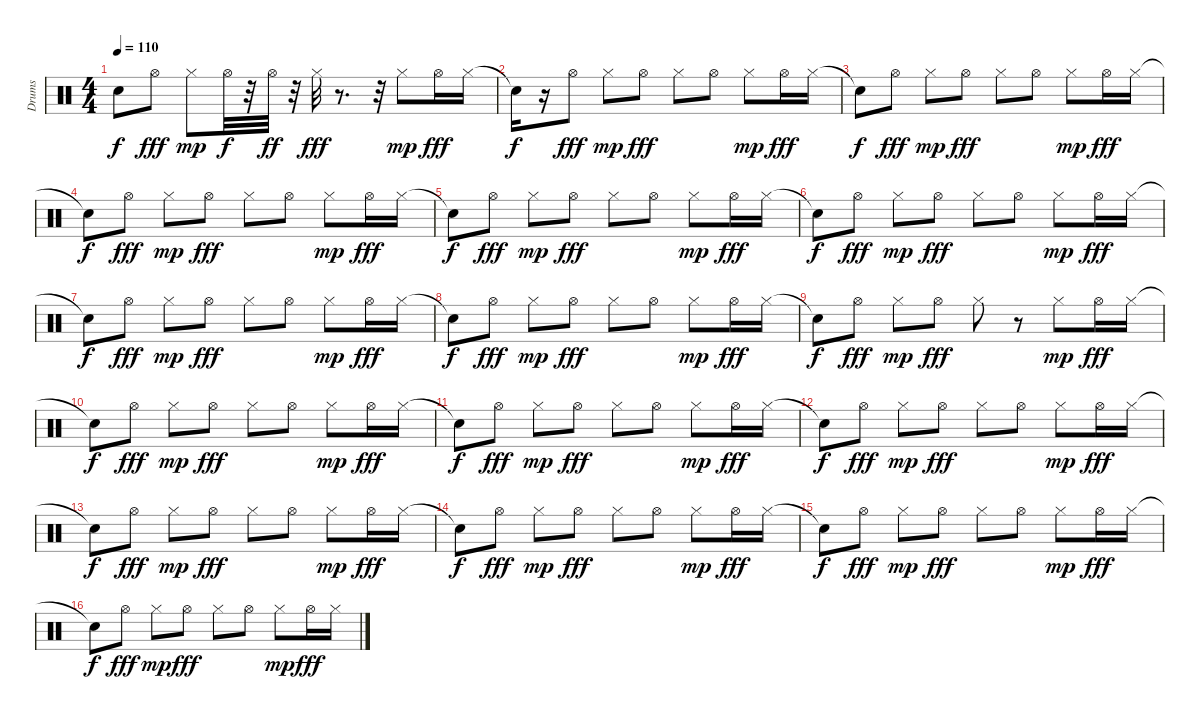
\track ("Drums" "Drums") {instrument percussion}
\staff {score}
\articulation defaults
\ts (4 4)
\tempo 110
\clef neutral
\ks c "Snare (hit)"{t}.8{dy f} "Hi-Hat (open)".8{dy fff} "Hi-Hat (closed)".8{dy mp} "Hi-Hat (open)".32{dy f}
r.32 "Hi-Hat (open)".32{dy ff} r.32 "Hi-Hat (closed)".32{dy fff} r.8{d} r.32 "Hi-Hat (closed)".8{dy mp} "Hi-Hat (open)".16{dy fff} "Hi-Hat (closed)".16 |
"Snare (hit)"{t}.16{dy f} r.16 "Hi-Hat (open)".8{dy fff} "Hi-Hat (closed)".8{dy mp} "Hi-Hat (open)".8{dy fff} "Hi-Hat (closed)".8 "Hi-Hat (open)".8 "Hi-Hat (closed)".8{dy mp} "Hi-Hat (open)".16{dy fff} "Hi-Hat (closed)".16 |
"Snare (hit)"{t}.8{dy f} "Hi-Hat (open)".8{dy fff} "Hi-Hat (closed)".8{dy mp} "Hi-Hat (open)".8{dy fff} "Hi-Hat (closed)".8 "Hi-Hat (open)".8 "Hi-Hat (closed)".8{dy mp} "Hi-Hat (open)".16{dy fff} "Hi-Hat (closed)".16 |
"Snare (hit)"{t}.8{dy f} "Hi-Hat (open)".8{dy fff} "Hi-Hat (closed)".8{dy mp} "Hi-Hat (open)".8{dy fff} "Hi-Hat (closed)".8 "Hi-Hat (open)".8 "Hi-Hat (closed)".8{dy mp} "Hi-Hat (open)".16{dy fff} "Hi-Hat (closed)".16 |
"Snare (hit)"{t}.8{dy f} "Hi-Hat (open)".8{dy fff} "Hi-Hat (closed)".8{dy mp} "Hi-Hat (open)".8{dy fff} "Hi-Hat (closed)".8 "Hi-Hat (open)".8 "Hi-Hat (closed)".8{dy mp} "Hi-Hat (open)".16{dy fff} "Hi-Hat (closed)".16 |
"Snare (hit)"{t}.8{dy f} "Hi-Hat (open)".8{dy fff} "Hi-Hat (closed)".8{dy mp} "Hi-Hat (open)".8{dy fff} "Hi-Hat (closed)".8 "Hi-Hat (open)".8 "Hi-Hat (closed)".8{dy mp} "Hi-Hat (open)".16{dy fff} "Hi-Hat (closed)".16 |
"Snare (hit)"{t}.8{dy f} "Hi-Hat (open)".8{dy fff} "Hi-Hat (closed)".8{dy mp} "Hi-Hat (open)".8{dy fff} "Hi-Hat (closed)".8 "Hi-Hat (open)".8 "Hi-Hat (closed)".8{dy mp} "Hi-Hat (open)".16{dy fff} "Hi-Hat (closed)".16 |
"Snare (hit)"{t}.8{dy f} "Hi-Hat (open)".8{dy fff} "Hi-Hat (closed)".8{dy mp} "Hi-Hat (open)".8{dy fff} "Hi-Hat (closed)".8 "Hi-Hat (open)".8 "Hi-Hat (closed)".8{dy mp} "Hi-Hat (open)".16{dy fff} "Hi-Hat (closed)".16 |
"Snare (hit)"{t}.8{dy f} "Hi-Hat (open)".8{dy fff} "Hi-Hat (closed)".8{dy mp} "Hi-Hat (open)".8{dy fff} "Hi-Hat (closed)".8 r.8 "Hi-Hat (closed)".8{dy mp} "Hi-Hat (open)".16{dy fff} "Hi-Hat (closed)".16 |
"Snare (hit)"{t}.8{dy f} "Hi-Hat (open)".8{dy fff} "Hi-Hat (closed)".8{dy mp} "Hi-Hat (open)".8{dy fff} "Hi-Hat (closed)".8 "Hi-Hat (open)".8 "Hi-Hat (closed)".8{dy mp} "Hi-Hat (open)".16{dy fff} "Hi-Hat (closed)".16 |
"Snare (hit)"{t}.8{dy f} "Hi-Hat (open)".8{dy fff} "Hi-Hat (closed)".8{dy mp} "Hi-Hat (open)".8{dy fff} "Hi-Hat (closed)".8 "Hi-Hat (open)".8 "Hi-Hat (closed)".8{dy mp} "Hi-Hat (open)".16{dy fff} "Hi-Hat (closed)".16 |
"Snare (hit)"{t}.8{dy f} "Hi-Hat (open)".8{dy fff} "Hi-Hat (closed)".8{dy mp} "Hi-Hat (open)".8{dy fff} "Hi-Hat (closed)".8 "Hi-Hat (open)".8 "Hi-Hat (closed)".8{dy mp} "Hi-Hat (open)".16{dy fff} "Hi-Hat (closed)".16 |
"Snare (hit)"{t}.8{dy f} "Hi-Hat (open)".8{dy fff} "Hi-Hat (closed)".8{dy mp} "Hi-Hat (open)".8{dy fff} "Hi-Hat (closed)".8 "Hi-Hat (open)".8 "Hi-Hat (closed)".8{dy mp} "Hi-Hat (open)".16{dy fff} "Hi-Hat (closed)".16 |
"Snare (hit)"{t}.8{dy f} "Hi-Hat (open)".8{dy fff} "Hi-Hat (closed)".8{dy mp} "Hi-Hat (open)".8{dy fff} "Hi-Hat (closed)".8 "Hi-Hat (open)".8 "Hi-Hat (closed)".8{dy mp} "Hi-Hat (open)".16{dy fff} "Hi-Hat (closed)".16 |
"Snare (hit)"{t}.8{dy f} "Hi-Hat (open)".8{dy fff} "Hi-Hat (closed)".8{dy mp} "Hi-Hat (open)".8{dy fff} "Hi-Hat (closed)".8 "Hi-Hat (open)".8 "Hi-Hat (closed)".8{dy mp} "Hi-Hat (open)".16{dy fff} "Hi-Hat (closed)".16 |
"Snare (hit)"{t}.8{dy f} "Hi-Hat (open)".8{dy fff} "Hi-Hat (closed)".8{dy mp} "Hi-Hat (open)".8{dy fff} "Hi-Hat (closed)".8 "Hi-Hat (open)".8 "Hi-Hat (closed)".8{dy mp} "Hi-Hat (open)".16{dy fff} "Hi-Hat (closed)".16
